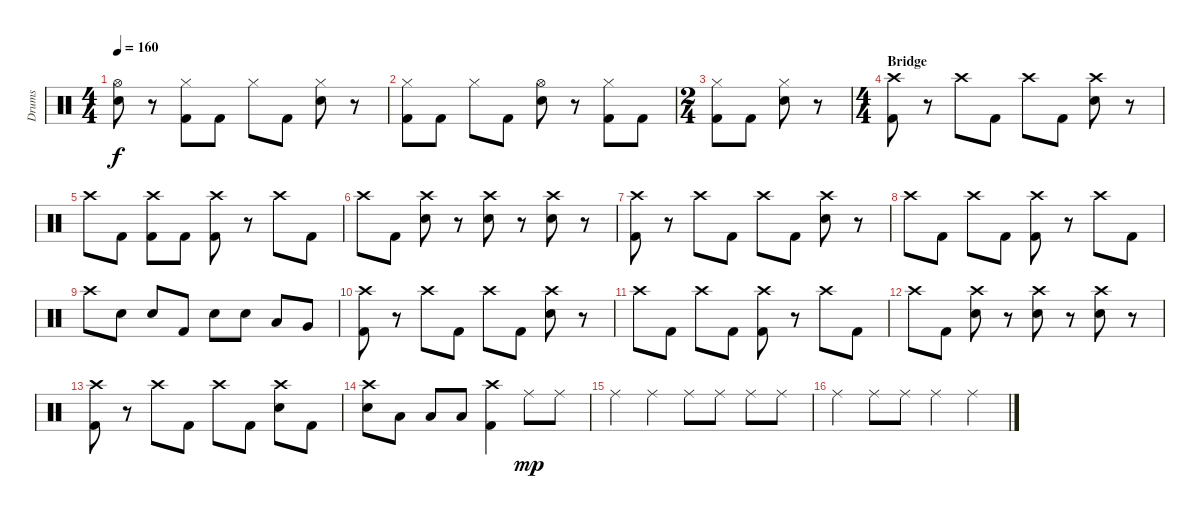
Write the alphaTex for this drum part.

\track ("Drums" "Drums") {instrument percussion}
\staff {score}
\articulation defaults
\ts (4 4)
\tempo 160
\clef neutral
\ks c
("Electric Snare (hit)" "Hi-Hat (open)").8{dy f} r.8 ("Kick (hit) 2" "Hi-Hat (closed)").8 "Kick (hit) 2".8 "Hi-Hat (closed)".8 "Kick (hit) 2".8 ("Electric Snare (hit)" "Hi-Hat (closed)").8 r.8 |
("Kick (hit) 2" "Hi-Hat (closed)").8 "Kick (hit) 2".8 "Hi-Hat (closed)".8 "Kick (hit) 2".8 ("Electric Snare (hit)" "Hi-Hat (open)").8 r.8 ("Kick (hit) 2" "Hi-Hat (closed)").8 "Kick (hit) 2".8 |
\ts (2 4)
("Kick (hit) 2" "Hi-Hat (closed)").8 "Kick (hit) 2".8 ("Electric Snare (hit)" "Hi-Hat (closed)").8 r.8 |
\ts (4 4)
\section ("" "Bridge")
("Kick (hit) 2" "Crash high (hit)").8 r.8 "Crash high (hit)".8 "Kick (hit) 2".8 "Crash high (hit)".8 "Kick (hit) 2".8 ("Electric Snare (hit)" "Crash high (hit)").8 r.8 |
"Crash high (hit)".8 "Kick (hit) 2".8 ("Kick (hit) 2" "Crash high (hit)").8 "Kick (hit) 2".8 ("Kick (hit) 2" "Crash high (hit)").8 r.8 "Crash high (hit)".8 "Kick (hit) 2".8 |
"Crash high (hit)".8 "Kick (hit) 2".8 ("Electric Snare (hit)" "Crash high (hit)").8 r.8 ("Electric Snare (hit)" "Crash high (hit)").8 r.8 ("Electric Snare (hit)" "Crash high (hit)").8 r.8 |
("Kick (hit) 2" "Crash high (hit)").8 r.8 "Crash high (hit)".8 "Kick (hit) 2".8 "Crash high (hit)".8 "Kick (hit) 2".8 ("Electric Snare (hit)" "Crash high (hit)").8 r.8 |
"Crash high (hit)".8 "Kick (hit) 2".8 "Crash high (hit)".8 "Kick (hit) 2".8 ("Kick (hit) 2" "Crash high (hit)").8 r.8 "Crash high (hit)".8 "Kick (hit) 2".8 |
"Crash high (hit)".8 "Electric Snare (hit)".8 "Electric Snare (hit)".8 "Kick (hit) 2".8 "Electric Snare (hit)".8 "Electric Snare (hit)".8 "Low Tom (hit)".8 "Very Low Tom (hit)".8 |
("Kick (hit) 2" "Crash high (hit)").8 r.8 "Crash high (hit)".8 "Kick (hit) 2".8 "Crash high (hit)".8 "Kick (hit) 2".8 ("Electric Snare (hit)" "Crash high (hit)").8 r.8 |
"Crash high (hit)".8 "Kick (hit) 2".8 "Crash high (hit)".8 "Kick (hit) 2".8 ("Kick (hit) 2" "Crash high (hit)").8 r.8 "Crash high (hit)".8 "Kick (hit) 2".8 |
"Crash high (hit)".8 "Kick (hit) 2".8 ("Electric Snare (hit)" "Crash high (hit)").8 r.8 ("Electric Snare (hit)" "Crash high (hit)").8 r.8 ("Electric Snare (hit)" "Crash high (hit)").8 r.8 |
("Kick (hit) 2" "Crash high (hit)").8 r.8 "Crash high (hit)".8 "Kick (hit) 2".8 "Crash high (hit)".8 "Kick (hit) 2".8 ("Electric Snare (hit)" "Crash high (hit)").8 "Kick (hit) 2".8 |
("Electric Snare (hit)" "Crash high (hit)").8 "Low Tom (hit)".8 "Low Tom (hit)".8 "Low Tom (hit)".8 ("Kick (hit) 2" "Crash high (hit)").4 "Ride (middle)".8{dy mp} "Ride (middle)".8 |
"Ride (middle)".4 "Ride (middle)".4 "Ride (middle)".8 "Ride (middle)".8 "Ride (middle)".8 "Ride (middle)".8 |
"Ride (middle)".4 "Ride (middle)".8 "Ride (middle)".8 "Ride (middle)".4 "Ride (middle)".4
